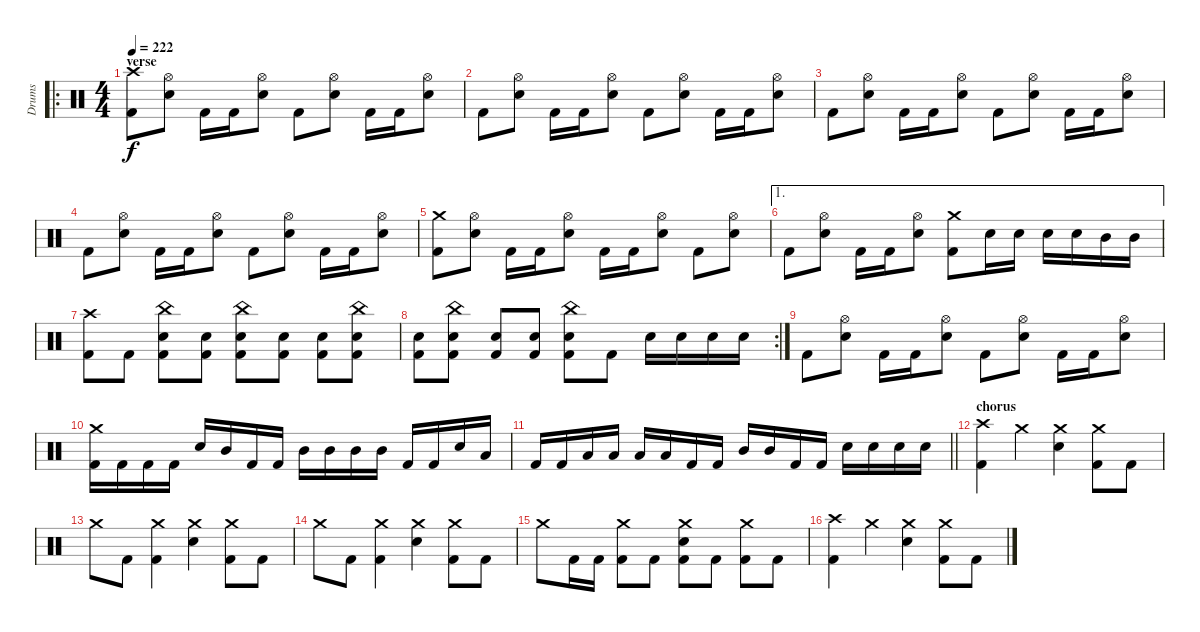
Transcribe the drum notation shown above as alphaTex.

\track ("Drums" "Drums") {instrument percussion}
\staff {score}
\articulation defaults
\ro
\ts (4 4)
\section ("" "verse")
\tempo 222
\clef neutral
\ks c
("Crash high (hit)" "Kick (hit) 2").8{dy f} ("Hi-Hat (open)" "Electric Snare (hit)").8 "Kick (hit) 2".16 "Kick (hit) 2".16 ("Hi-Hat (open)" "Electric Snare (hit)").8 "Kick (hit) 2".8 ("Hi-Hat (open)" "Electric Snare (hit)").8 "Kick (hit) 2".16 "Kick (hit) 2".16 ("Hi-Hat (open)" "Electric Snare (hit)").8 |
"Kick (hit) 2".8 ("Hi-Hat (open)" "Electric Snare (hit)").8 "Kick (hit) 2".16 "Kick (hit) 2".16 ("Hi-Hat (open)" "Electric Snare (hit)").8 "Kick (hit) 2".8 ("Hi-Hat (open)" "Electric Snare (hit)").8 "Kick (hit) 2".16 "Kick (hit) 2".16 ("Hi-Hat (open)" "Electric Snare (hit)").8 |
"Kick (hit) 2".8 ("Hi-Hat (open)" "Electric Snare (hit)").8 "Kick (hit) 2".16 "Kick (hit) 2".16 ("Hi-Hat (open)" "Electric Snare (hit)").8 "Kick (hit) 2".8 ("Hi-Hat (open)" "Electric Snare (hit)").8 "Kick (hit) 2".16 "Kick (hit) 2".16 ("Hi-Hat (open)" "Electric Snare (hit)").8 |
"Kick (hit) 2".8 ("Hi-Hat (open)" "Electric Snare (hit)").8 "Kick (hit) 2".16 "Kick (hit) 2".16 ("Hi-Hat (open)" "Electric Snare (hit)").8 "Kick (hit) 2".8 ("Hi-Hat (open)" "Electric Snare (hit)").8 "Kick (hit) 2".16 "Kick (hit) 2".16 ("Hi-Hat (open)" "Electric Snare (hit)").8 |
("Crash medium (hit)" "Kick (hit) 2").8 ("Hi-Hat (open)" "Electric Snare (hit)").8 "Kick (hit) 2".16 "Kick (hit) 2".16 ("Hi-Hat (open)" "Electric Snare (hit)").8 "Kick (hit) 2".16 "Kick (hit) 2".16 ("Hi-Hat (open)" "Electric Snare (hit)").8 "Kick (hit) 2".8 ("Hi-Hat (open)" "Electric Snare (hit)").8 |
\ae 1 "Kick (hit) 2".8
("Hi-Hat (open)" "Electric Snare (hit)").8 "Kick (hit) 2".16 "Kick (hit) 2".16 ("Hi-Hat (open)" "Electric Snare (hit)").8 ("Crash medium (hit)" "Kick (hit) 2").8 "Electric Snare (hit)".16 "Electric Snare (hit)".16 "Electric Snare (hit)".16 "Electric Snare (hit)".16 "Mid Tom (hit)".16 "Mid Tom (hit)".16 |
("Crash high (hit)" "Kick (hit) 2").8 "Kick (hit) 2".8 ("China (hit)" "Electric Snare (hit)" "Kick (hit) 2").8 ("Electric Snare (hit)" "Kick (hit) 2").8 ("China (hit)" "Electric Snare (hit)" "Kick (hit) 2").8 ("Electric Snare (hit)" "Kick (hit) 2").8 ("Electric Snare (hit)" "Kick (hit) 2").8 ("China (hit)" "Electric Snare (hit)" "Kick (hit) 2").8 |
\rc 2
("Electric Snare (hit)" "Kick (hit) 2").8 ("China (hit)" "Electric Snare (hit)" "Kick (hit) 2").8 ("Electric Snare (hit)" "Kick (hit) 2").8 ("Electric Snare (hit)" "Kick (hit) 2").8 ("China (hit)" "Electric Snare (hit)" "Kick (hit) 2").8 "Kick (hit) 2".8 "Electric Snare (hit)".16 "Electric Snare (hit)".16 "Electric Snare (hit)".16 "Electric Snare (hit)".16 |
"Kick (hit) 2".8 ("Hi-Hat (open)" "Electric Snare (hit)").8 "Kick (hit) 2".16 "Kick (hit) 2".16 ("Hi-Hat (open)" "Electric Snare (hit)").8 "Kick (hit) 2".8 ("Hi-Hat (open)" "Electric Snare (hit)").8 "Kick (hit) 2".16 "Kick (hit) 2".16 ("Hi-Hat (open)" "Electric Snare (hit)").8 |
("Crash medium (hit)" "Kick (hit) 2").16 "Kick (hit) 2".16 "Kick (hit) 2".16 "Kick (hit) 2".16 "Electric Snare (hit)".16 "Mid Tom (hit)".16 "Kick (hit) 2".16 "Kick (hit) 2".16 "Mid Tom (hit)".16 "Mid Tom (hit)".16 "Mid Tom (hit)".16 "Mid Tom (hit)".16 "Kick (hit) 2".16 "Kick (hit) 2".16 "Electric Snare (hit)".16 "Low Tom (hit)".16 |
\barLineRight lightlight "Kick (hit) 2".16 "Kick (hit) 2".16 "Low Tom (hit)".16 "Low Tom (hit)".16 "Low Tom (hit)".16 "Low Tom (hit)".16 "Kick (hit) 2".16 "Kick (hit) 2".16 "Mid Tom (hit)".16 "Mid Tom (hit)".16 "Kick (hit) 2".16 "Kick (hit) 2".16 "Electric Snare (hit)".16 "Electric Snare (hit)".16 "Electric Snare (hit)".16 "Electric Snare (hit)".16
|
\section ("" "chorus")
("Crash high (hit)" "Kick (hit) 2").4 "Crash medium (hit)".4 ("Crash medium (hit)" "Electric Snare (hit)").4 ("Crash medium (hit)" "Kick (hit) 2").8 "Kick (hit) 2".8 |
"Crash medium (hit)".8 "Kick (hit) 2".8 ("Crash medium (hit)" "Kick (hit) 2").4 ("Crash medium (hit)" "Electric Snare (hit)").4 ("Crash medium (hit)" "Kick (hit) 2").8 "Kick (hit) 2".8 |
"Crash medium (hit)".8 "Kick (hit) 2".8 ("Crash medium (hit)" "Kick (hit) 2").4 ("Crash medium (hit)" "Electric Snare (hit)").4 ("Crash medium (hit)" "Kick (hit) 2").8 "Kick (hit) 2".8 |
"Crash medium (hit)".8 "Kick (hit) 2".16 "Kick (hit) 2".16 ("Crash medium (hit)" "Kick (hit) 2").8 "Kick (hit) 2".8 ("Crash medium (hit)" "Electric Snare (hit)" "Kick (hit) 2").8 "Kick (hit) 2".8 ("Crash medium (hit)" "Kick (hit) 2").8 "Kick (hit) 2".8 |
("Crash high (hit)" "Kick (hit) 2").4 "Crash medium (hit)".4 ("Crash medium (hit)" "Electric Snare (hit)").4 ("Crash medium (hit)" "Kick (hit) 2").8 "Kick (hit) 2".8
